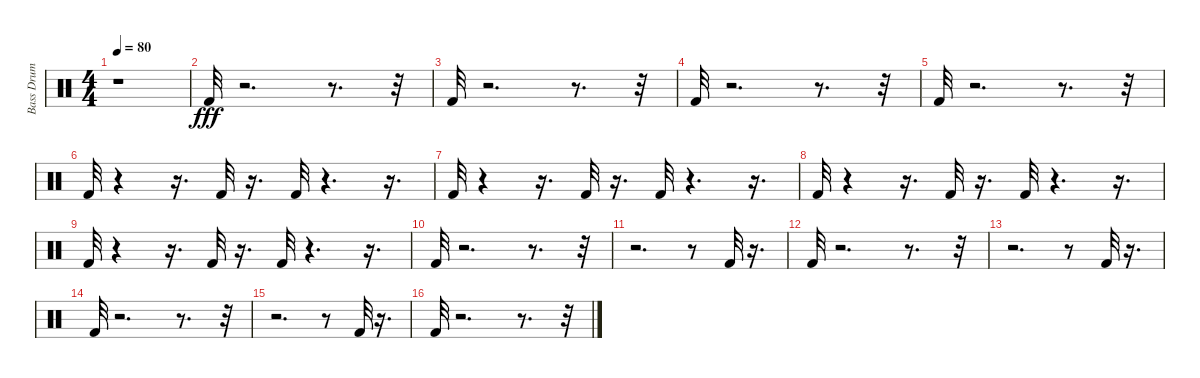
\track ("Bass Drum" "Bass Drum") {instrument percussion}
\staff {score}
\articulation defaults
\ts (4 4)
\tempo 80
\clef neutral
\ks c
r.1{dy fff} |
"Kick (hit) 2".32 r.2{d} r.8{d} r.32 |
"Kick (hit) 2".32 r.2{d} r.8{d} r.32 |
"Kick (hit) 2".32 r.2{d} r.8{d} r.32 |
"Kick (hit) 2".32 r.2{d} r.8{d} r.32 |
"Kick (hit) 2".32 r.4 r.16{d} "Kick (hit) 2".32 r.16{d} "Kick (hit) 2".32 r.4{d} r.16{d} |
"Kick (hit) 2".32 r.4 r.16{d} "Kick (hit) 2".32 r.16{d} "Kick (hit) 2".32 r.4{d} r.16{d} |
"Kick (hit) 2".32 r.4 r.16{d} "Kick (hit) 2".32 r.16{d} "Kick (hit) 2".32 r.4{d} r.16{d} |
"Kick (hit) 2".32 r.4 r.16{d} "Kick (hit) 2".32 r.16{d} "Kick (hit) 2".32 r.4{d} r.16{d} |
"Kick (hit) 2".32 r.2{d} r.8{d} r.32 |
r.2{d} r.8 "Kick (hit) 2".32 r.16{d} |
"Kick (hit) 2".32 r.2{d} r.8{d} r.32 |
r.2{d} r.8 "Kick (hit) 2".32 r.16{d} |
"Kick (hit) 2".32 r.2{d} r.8{d} r.32 |
r.2{d} r.8 "Kick (hit) 2".32 r.16{d} |
"Kick (hit) 2".32 r.2{d} r.8{d} r.32
